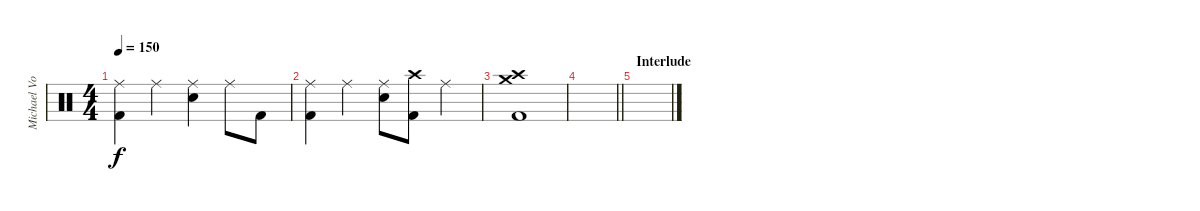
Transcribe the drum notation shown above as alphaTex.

\track ("Michael Von Knorring" "Michael Vo") {instrument percussion}
\staff {score}
\articulation defaults
\ts (4 4)
\tempo 150
\clef neutral
\ks c
("Ride (middle)" "Kick (hit) 2").4{dy f} "Ride (middle)".4 ("Ride (middle)" "Snare (hit) 2").4 "Ride (middle)".8 "Kick (hit) 2".8 |
("Ride (middle)" "Kick (hit) 2").4 "Ride (middle)".4 ("Ride (middle)" "Snare (hit) 2").8 ("Crash high (hit)" "Kick (hit) 2").8 "Ride (middle)".4 |
("Crash high (hit)" "Crash medium (hit)" "Kick (hit) 2").1 |
\barLineRight lightlight
|
\section ("" "Interlude")
